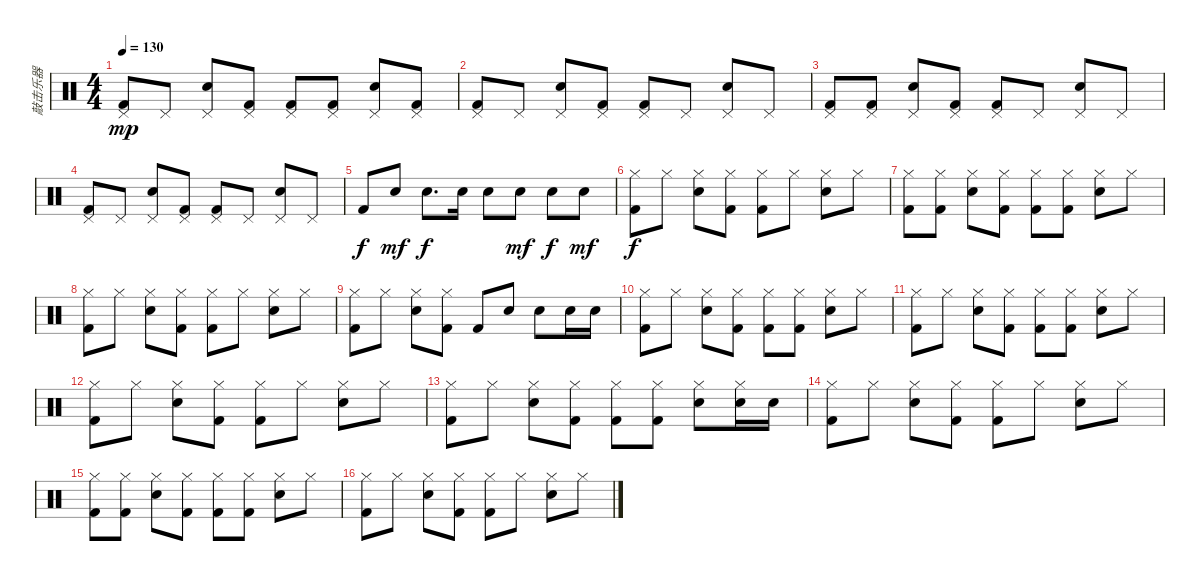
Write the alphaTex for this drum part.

\track ("敲击乐器" "敲击乐器") {instrument percussion}
\staff {score}
\articulation defaults
\ts (4 4)
\tempo 130
\clef neutral
\ks c
("Pedal Hi-Hat (hit)" "Kick (hit) 2").8{dy mp} "Pedal Hi-Hat (hit)".8 ("Pedal Hi-Hat (hit)" "Electric Snare (hit)").8 ("Pedal Hi-Hat (hit)" "Kick (hit) 2").8 ("Pedal Hi-Hat (hit)" "Kick (hit) 2").8 ("Pedal Hi-Hat (hit)" "Kick (hit) 2").8 ("Pedal Hi-Hat (hit)" "Electric Snare (hit)").8 ("Pedal Hi-Hat (hit)" "Kick (hit) 2").8 |
("Pedal Hi-Hat (hit)" "Kick (hit) 2").8 "Pedal Hi-Hat (hit)".8 ("Pedal Hi-Hat (hit)" "Electric Snare (hit)").8 ("Pedal Hi-Hat (hit)" "Kick (hit) 2").8 ("Pedal Hi-Hat (hit)" "Kick (hit) 2").8 "Pedal Hi-Hat (hit)".8 ("Pedal Hi-Hat (hit)" "Electric Snare (hit)").8 "Pedal Hi-Hat (hit)".8 |
("Pedal Hi-Hat (hit)" "Kick (hit) 2").8 ("Pedal Hi-Hat (hit)" "Kick (hit) 2").8 ("Pedal Hi-Hat (hit)" "Electric Snare (hit)").8 ("Pedal Hi-Hat (hit)" "Kick (hit) 2").8 ("Pedal Hi-Hat (hit)" "Kick (hit) 2").8 "Pedal Hi-Hat (hit)".8 ("Pedal Hi-Hat (hit)" "Electric Snare (hit)").8 "Pedal Hi-Hat (hit)".8 |
("Pedal Hi-Hat (hit)" "Kick (hit) 2").8 "Pedal Hi-Hat (hit)".8 ("Pedal Hi-Hat (hit)" "Electric Snare (hit)").8 ("Pedal Hi-Hat (hit)" "Kick (hit) 2").8 ("Pedal Hi-Hat (hit)" "Kick (hit) 2").8 "Pedal Hi-Hat (hit)".8 ("Pedal Hi-Hat (hit)" "Electric Snare (hit)").8 "Pedal Hi-Hat (hit)".8 |
"Kick (hit) 2".8{dy f} "Electric Snare (hit)".8{dy mf} "Electric Snare (hit)".8{d dy f} "Electric Snare (hit)".16 "Electric Snare (hit)".8 "Electric Snare (hit)".8{dy mf} "Electric Snare (hit)".8{dy f} "Electric Snare (hit)".8{dy mf} |
("Hi-Hat (closed)" "Kick (hit) 2").8{dy f} "Hi-Hat (closed)".8 ("Hi-Hat (closed)" "Electric Snare (hit)").8 ("Hi-Hat (closed)" "Kick (hit) 2").8 ("Hi-Hat (closed)" "Kick (hit) 2").8 "Hi-Hat (closed)".8 ("Hi-Hat (closed)" "Electric Snare (hit)").8 "Hi-Hat (closed)".8 |
("Hi-Hat (closed)" "Kick (hit) 2").8 ("Hi-Hat (closed)" "Kick (hit) 2").8 ("Hi-Hat (closed)" "Electric Snare (hit)").8 ("Hi-Hat (closed)" "Kick (hit) 2").8 ("Hi-Hat (closed)" "Kick (hit) 2").8 ("Hi-Hat (closed)" "Kick (hit) 2").8 ("Hi-Hat (closed)" "Electric Snare (hit)").8 "Hi-Hat (closed)".8 |
("Hi-Hat (closed)" "Kick (hit) 2").8 "Hi-Hat (closed)".8 ("Hi-Hat (closed)" "Electric Snare (hit)").8 ("Hi-Hat (closed)" "Kick (hit) 2").8 ("Hi-Hat (closed)" "Kick (hit) 2").8 "Hi-Hat (closed)".8 ("Hi-Hat (closed)" "Electric Snare (hit)").8 "Hi-Hat (closed)".8 |
("Hi-Hat (closed)" "Kick (hit) 2").8 "Hi-Hat (closed)".8 ("Hi-Hat (closed)" "Electric Snare (hit)").8 ("Hi-Hat (closed)" "Kick (hit) 2").8 "Kick (hit) 2".8 "Electric Snare (hit)".8 "Electric Snare (hit)".8 "Electric Snare (hit)".16 "Electric Snare (hit)".16 |
("Hi-Hat (closed)" "Kick (hit) 2").8 "Hi-Hat (closed)".8 ("Hi-Hat (closed)" "Electric Snare (hit)").8 ("Hi-Hat (closed)" "Kick (hit) 2").8 ("Hi-Hat (closed)" "Kick (hit) 2").8 ("Hi-Hat (closed)" "Kick (hit) 2").8 ("Hi-Hat (closed)" "Electric Snare (hit)").8 "Hi-Hat (closed)".8 |
("Hi-Hat (closed)" "Kick (hit) 2").8 "Hi-Hat (closed)".8 ("Hi-Hat (closed)" "Electric Snare (hit)").8 ("Hi-Hat (closed)" "Kick (hit) 2").8 ("Hi-Hat (closed)" "Kick (hit) 2").8 ("Hi-Hat (closed)" "Kick (hit) 2").8 ("Hi-Hat (closed)" "Electric Snare (hit)").8 "Hi-Hat (closed)".8 |
("Hi-Hat (closed)" "Kick (hit) 2").8 "Hi-Hat (closed)".8 ("Hi-Hat (closed)" "Electric Snare (hit)").8 ("Hi-Hat (closed)" "Kick (hit) 2").8 ("Hi-Hat (closed)" "Kick (hit) 2").8 "Hi-Hat (closed)".8 ("Hi-Hat (closed)" "Electric Snare (hit)").8 "Hi-Hat (closed)".8 |
("Hi-Hat (closed)" "Kick (hit) 2").8 "Hi-Hat (closed)".8 ("Hi-Hat (closed)" "Electric Snare (hit)").8 ("Hi-Hat (closed)" "Kick (hit) 2").8 ("Hi-Hat (closed)" "Kick (hit) 2").8 ("Hi-Hat (closed)" "Kick (hit) 2").8 ("Hi-Hat (closed)" "Electric Snare (hit)").8 ("Hi-Hat (closed)" "Electric Snare (hit)").16 "Electric Snare (hit)".16 |
("Hi-Hat (closed)" "Kick (hit) 2").8 "Hi-Hat (closed)".8 ("Hi-Hat (closed)" "Electric Snare (hit)").8 ("Hi-Hat (closed)" "Kick (hit) 2").8 ("Hi-Hat (closed)" "Kick (hit) 2").8 "Hi-Hat (closed)".8 ("Hi-Hat (closed)" "Electric Snare (hit)").8 "Hi-Hat (closed)".8 |
("Hi-Hat (closed)" "Kick (hit) 2").8 ("Hi-Hat (closed)" "Kick (hit) 2").8 ("Hi-Hat (closed)" "Electric Snare (hit)").8 ("Hi-Hat (closed)" "Kick (hit) 2").8 ("Hi-Hat (closed)" "Kick (hit) 2").8 ("Hi-Hat (closed)" "Kick (hit) 2").8 ("Hi-Hat (closed)" "Electric Snare (hit)").8 "Hi-Hat (closed)".8 |
("Hi-Hat (closed)" "Kick (hit) 2").8 "Hi-Hat (closed)".8 ("Hi-Hat (closed)" "Electric Snare (hit)").8 ("Hi-Hat (closed)" "Kick (hit) 2").8 ("Hi-Hat (closed)" "Kick (hit) 2").8 "Hi-Hat (closed)".8 ("Hi-Hat (closed)" "Electric Snare (hit)").8 "Hi-Hat (closed)".8
